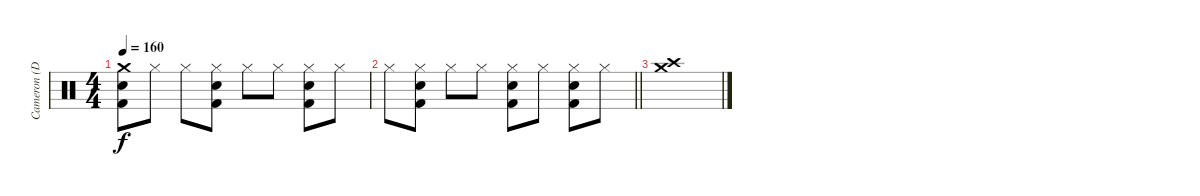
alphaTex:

\track ("Cameron (Drums)" "Cameron (D") {instrument percussion}
\staff {score}
\articulation defaults
\ts (4 4)
\tempo 160
\clef neutral
\ks c
("Crash medium (hit)" "Snare (hit) 2" "Kick (hit) 2").8{dy f} "Hi-Hat (closed)".8 "Hi-Hat (closed)".8 ("Hi-Hat (closed)" "Snare (hit) 2" "Kick (hit) 2").8 "Hi-Hat (closed)".8 "Hi-Hat (closed)".8 ("Hi-Hat (closed)" "Snare (hit) 2" "Kick (hit) 2").8 "Hi-Hat (closed)".8 |
\barLineRight lightlight "Hi-Hat (closed)".8
("Hi-Hat (closed)" "Snare (hit) 2" "Kick (hit) 2").8 "Hi-Hat (closed)".8 "Hi-Hat (closed)".8 ("Hi-Hat (closed)" "Snare (hit) 2" "Kick (hit) 2").8 "Hi-Hat (closed)".8 ("Hi-Hat (closed)" "Snare (hit) 2" "Kick (hit) 2").8 "Hi-Hat (closed)".8 |
("Crash medium (hit)" "Crash high (hit)").1
